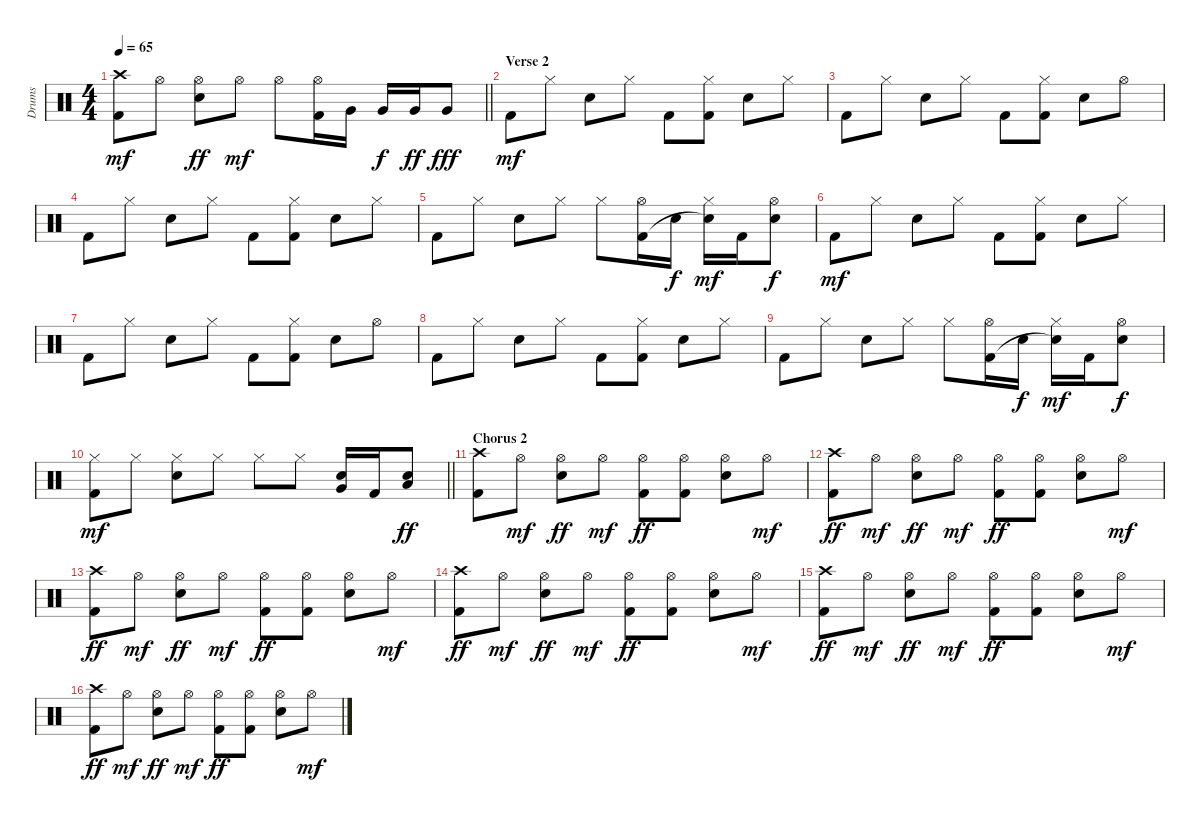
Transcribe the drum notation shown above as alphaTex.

\track ("Drums" "Drums") {instrument percussion}
\staff {score}
\articulation defaults
\ts (4 4)
\tempo 65
\clef neutral
\barLineRight lightlight
\ks c
("Crash high (hit)" "Kick (hit) 2").8{dy mf} "Hi-Hat (open)".8 ("Hi-Hat (open)" "Electric Snare (hit)").8{dy ff} "Hi-Hat (open)".8{dy mf} "Hi-Hat (open)".8 ("Hi-Hat (open)" "Kick (hit) 2").16 "Very Low Tom (hit)".16 "Very Low Tom (hit)".16{dy f} "Very Low Tom (hit)".16{dy ff} "Very Low Tom (hit)".8{dy fff} |
\section ("" "Verse 2")
"Kick (hit) 2".8{dy mf} "Hi-Hat (closed)".8 "Electric Snare (hit)".8 "Hi-Hat (closed)".8 "Kick (hit) 2".8 ("Hi-Hat (closed)" "Kick (hit) 2").8 "Electric Snare (hit)".8 "Hi-Hat (closed)".8 |
"Kick (hit) 2".8 "Hi-Hat (closed)".8 "Electric Snare (hit)".8 "Hi-Hat (closed)".8 "Kick (hit) 2".8 ("Hi-Hat (closed)" "Kick (hit) 2").8 "Electric Snare (hit)".8 "Hi-Hat (open)".8 |
"Kick (hit) 2".8 "Hi-Hat (closed)".8 "Electric Snare (hit)".8 "Hi-Hat (closed)".8 "Kick (hit) 2".8 ("Hi-Hat (closed)" "Kick (hit) 2").8 "Electric Snare (hit)".8 "Hi-Hat (closed)".8 |
"Kick (hit) 2".8 "Hi-Hat (closed)".8 "Electric Snare (hit)".8 "Hi-Hat (closed)".8 "Hi-Hat (closed)".8 ("Hi-Hat (open)" "Kick (hit) 2").16 "Electric Snare (hit)".16{dy f} ("Hi-Hat (closed)" "Snare (hit)"{t}).16{dy mf} "Kick (hit) 2".16 ("Hi-Hat (open)" "Electric Snare (hit)").8{dy f} |
"Kick (hit) 2".8{dy mf} "Hi-Hat (closed)".8 "Electric Snare (hit)".8 "Hi-Hat (closed)".8 "Kick (hit) 2".8 ("Hi-Hat (closed)" "Kick (hit) 2").8 "Electric Snare (hit)".8 "Hi-Hat (closed)".8 |
"Kick (hit) 2".8 "Hi-Hat (closed)".8 "Electric Snare (hit)".8 "Hi-Hat (closed)".8 "Kick (hit) 2".8 ("Hi-Hat (closed)" "Kick (hit) 2").8 "Electric Snare (hit)".8 "Hi-Hat (open)".8 |
"Kick (hit) 2".8 "Hi-Hat (closed)".8 "Electric Snare (hit)".8 "Hi-Hat (closed)".8 "Kick (hit) 2".8 ("Hi-Hat (closed)" "Kick (hit) 2").8 "Electric Snare (hit)".8 "Hi-Hat (closed)".8 |
"Kick (hit) 2".8 "Hi-Hat (closed)".8 "Electric Snare (hit)".8 "Hi-Hat (closed)".8 "Hi-Hat (closed)".8 ("Hi-Hat (open)" "Kick (hit) 2").16 "Electric Snare (hit)".16{dy f} ("Hi-Hat (closed)" "Snare (hit)"{t}).16{dy mf} "Kick (hit) 2".16 ("Hi-Hat (open)" "Electric Snare (hit)").8{dy f} |
\barLineRight lightlight
("Hi-Hat (closed)" "Kick (hit) 2").8{dy mf} "Hi-Hat (closed)".8 ("Hi-Hat (closed)" "Electric Snare (hit)").8 "Hi-Hat (closed)".8 "Hi-Hat (closed)".8 "Hi-Hat (closed)".8 ("Electric Snare (hit)" "Very Low Tom (hit)").16 "Kick (hit) 2".16 ("Electric Snare (hit)" "Low Floor Tom (hit)").8{dy ff} |
\section ("" "Chorus 2")
("Crash high (hit)" "Kick (hit) 2").8 "Hi-Hat (open)".8{dy mf} ("Hi-Hat (open)" "Electric Snare (hit)").8{dy ff} "Hi-Hat (open)".8{dy mf} ("Hi-Hat (open)" "Kick (hit) 2").8{dy ff} ("Hi-Hat (open)" "Kick (hit) 2").8 ("Hi-Hat (open)" "Electric Snare (hit)").8 "Hi-Hat (open)".8{dy mf} |
("Crash high (hit)" "Kick (hit) 2").8{dy ff} "Hi-Hat (open)".8{dy mf} ("Hi-Hat (open)" "Electric Snare (hit)").8{dy ff} "Hi-Hat (open)".8{dy mf} ("Hi-Hat (open)" "Kick (hit) 2").8{dy ff} ("Hi-Hat (open)" "Kick (hit) 2").8 ("Hi-Hat (open)" "Electric Snare (hit)").8 "Hi-Hat (open)".8{dy mf} |
("Crash high (hit)" "Kick (hit) 2").8{dy ff} "Hi-Hat (open)".8{dy mf} ("Hi-Hat (open)" "Electric Snare (hit)").8{dy ff} "Hi-Hat (open)".8{dy mf} ("Hi-Hat (open)" "Kick (hit) 2").8{dy ff} ("Hi-Hat (open)" "Kick (hit) 2").8 ("Hi-Hat (open)" "Electric Snare (hit)").8 "Hi-Hat (open)".8{dy mf} |
("Crash high (hit)" "Kick (hit) 2").8{dy ff} "Hi-Hat (open)".8{dy mf} ("Hi-Hat (open)" "Electric Snare (hit)").8{dy ff} "Hi-Hat (open)".8{dy mf} ("Hi-Hat (open)" "Kick (hit) 2").8{dy ff} ("Hi-Hat (open)" "Kick (hit) 2").8 ("Hi-Hat (open)" "Electric Snare (hit)").8 "Hi-Hat (open)".8{dy mf} |
("Crash high (hit)" "Kick (hit) 2").8{dy ff} "Hi-Hat (open)".8{dy mf} ("Hi-Hat (open)" "Electric Snare (hit)").8{dy ff} "Hi-Hat (open)".8{dy mf} ("Hi-Hat (open)" "Kick (hit) 2").8{dy ff} ("Hi-Hat (open)" "Kick (hit) 2").8 ("Hi-Hat (open)" "Electric Snare (hit)").8 "Hi-Hat (open)".8{dy mf} |
("Crash high (hit)" "Kick (hit) 2").8{dy ff} "Hi-Hat (open)".8{dy mf} ("Hi-Hat (open)" "Electric Snare (hit)").8{dy ff} "Hi-Hat (open)".8{dy mf} ("Hi-Hat (open)" "Kick (hit) 2").8{dy ff} ("Hi-Hat (open)" "Kick (hit) 2").8 ("Hi-Hat (open)" "Electric Snare (hit)").8 "Hi-Hat (open)".8{dy mf}
